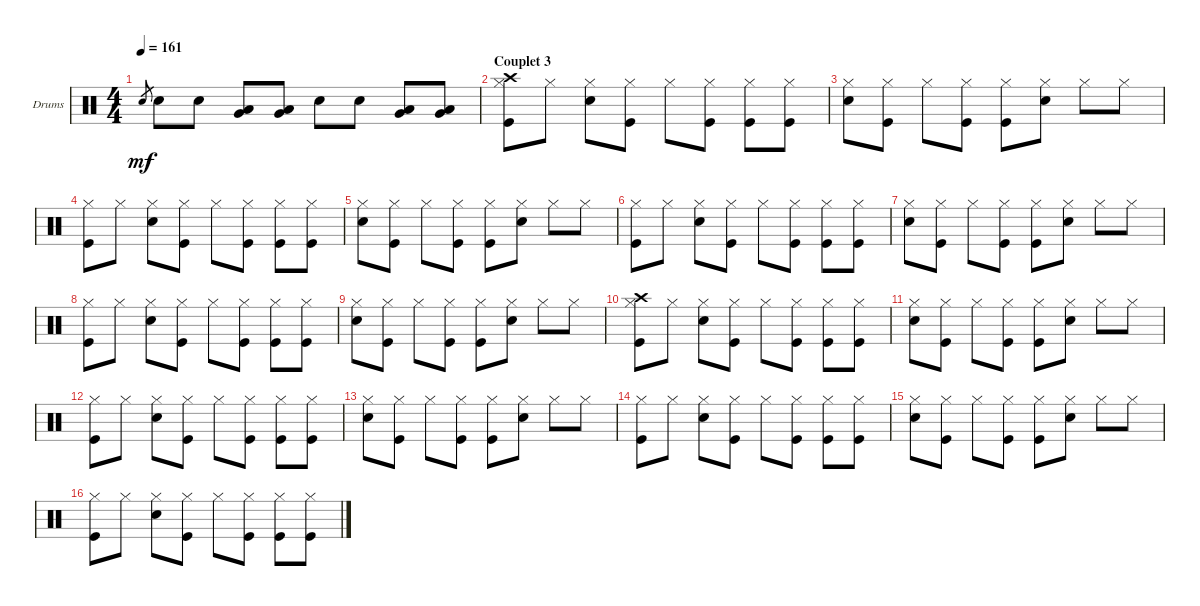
\defaultSystemsLayout 4
\bracketExtendMode groupsimilarinstruments
\firstSystemTrackNameOrientation horizontal
\otherSystemsTrackNameOrientation horizontal
\chordDiagramsInScore
\track ("Drumkit" "Drums") {instrument percussion}
\staff {score}
\articulation defaults
\ts (4 4)
\tempo 161
\clef neutral
\ks c "Snare (hit) 2".8{gr dy mf} "Snare (hit) 2".8 "Snare (hit) 2".8
("Low Tom (hit)" "Very Low Tom (hit)").8 ("Low Tom (hit)" "Very Low Tom (hit)").8 "Snare (hit) 2".8 "Snare (hit) 2".8 ("Low Tom (hit)" "Very Low Tom (hit)").8 ("Low Tom (hit)" "Very Low Tom (hit)").8 |
\section ("" "Couplet 3")
("Hi-Hat (closed)" "Kick (hit)" "Crash high (hit)").8 "Hi-Hat (closed)".8 ("Hi-Hat (closed)" "Snare (hit) 2").8 ("Hi-Hat (closed)" "Kick (hit)").8 "Hi-Hat (closed)".8 ("Hi-Hat (closed)" "Kick (hit)").8 ("Hi-Hat (closed)" "Kick (hit)").8 ("Hi-Hat (closed)" "Kick (hit)").8 |
("Hi-Hat (closed)" "Snare (hit) 2").8 ("Hi-Hat (closed)" "Kick (hit)").8 "Hi-Hat (closed)".8 ("Hi-Hat (closed)" "Kick (hit)").8 ("Hi-Hat (closed)" "Kick (hit)").8 ("Hi-Hat (closed)" "Snare (hit) 2").8 "Hi-Hat (closed)".8 "Hi-Hat (closed)".8 |
("Hi-Hat (closed)" "Kick (hit)").8 "Hi-Hat (closed)".8 ("Hi-Hat (closed)" "Snare (hit) 2").8 ("Hi-Hat (closed)" "Kick (hit)").8 "Hi-Hat (closed)".8 ("Hi-Hat (closed)" "Kick (hit)").8 ("Hi-Hat (closed)" "Kick (hit)").8 ("Hi-Hat (closed)" "Kick (hit)").8 |
("Hi-Hat (closed)" "Snare (hit) 2").8 ("Hi-Hat (closed)" "Kick (hit)").8 "Hi-Hat (closed)".8 ("Hi-Hat (closed)" "Kick (hit)").8 ("Hi-Hat (closed)" "Kick (hit)").8 ("Hi-Hat (closed)" "Snare (hit) 2").8 "Hi-Hat (closed)".8 "Hi-Hat (closed)".8 |
("Hi-Hat (closed)" "Kick (hit)").8 "Hi-Hat (closed)".8 ("Hi-Hat (closed)" "Snare (hit) 2").8 ("Hi-Hat (closed)" "Kick (hit)").8 "Hi-Hat (closed)".8 ("Hi-Hat (closed)" "Kick (hit)").8 ("Hi-Hat (closed)" "Kick (hit)").8 ("Hi-Hat (closed)" "Kick (hit)").8 |
("Hi-Hat (closed)" "Snare (hit) 2").8 ("Hi-Hat (closed)" "Kick (hit)").8 "Hi-Hat (closed)".8 ("Hi-Hat (closed)" "Kick (hit)").8 ("Hi-Hat (closed)" "Kick (hit)").8 ("Hi-Hat (closed)" "Snare (hit) 2").8 "Hi-Hat (closed)".8 "Hi-Hat (closed)".8 |
("Hi-Hat (closed)" "Kick (hit)").8 "Hi-Hat (closed)".8 ("Hi-Hat (closed)" "Snare (hit) 2").8 ("Hi-Hat (closed)" "Kick (hit)").8 "Hi-Hat (closed)".8 ("Hi-Hat (closed)" "Kick (hit)").8 ("Hi-Hat (closed)" "Kick (hit)").8 ("Hi-Hat (closed)" "Kick (hit)").8 |
("Hi-Hat (closed)" "Snare (hit) 2").8 ("Hi-Hat (closed)" "Kick (hit)").8 "Hi-Hat (closed)".8 ("Hi-Hat (closed)" "Kick (hit)").8 ("Hi-Hat (closed)" "Kick (hit)").8 ("Hi-Hat (closed)" "Snare (hit) 2").8 "Hi-Hat (closed)".8 "Hi-Hat (closed)".8 |
("Hi-Hat (closed)" "Kick (hit)" "Crash high (hit)").8 "Hi-Hat (closed)".8 ("Hi-Hat (closed)" "Snare (hit) 2").8 ("Hi-Hat (closed)" "Kick (hit)").8 "Hi-Hat (closed)".8 ("Hi-Hat (closed)" "Kick (hit)").8 ("Hi-Hat (closed)" "Kick (hit)").8 ("Hi-Hat (closed)" "Kick (hit)").8 |
("Hi-Hat (closed)" "Snare (hit) 2").8 ("Hi-Hat (closed)" "Kick (hit)").8 "Hi-Hat (closed)".8 ("Hi-Hat (closed)" "Kick (hit)").8 ("Hi-Hat (closed)" "Kick (hit)").8 ("Hi-Hat (closed)" "Snare (hit) 2").8 "Hi-Hat (closed)".8 "Hi-Hat (closed)".8 |
("Hi-Hat (closed)" "Kick (hit)").8 "Hi-Hat (closed)".8 ("Hi-Hat (closed)" "Snare (hit) 2").8 ("Hi-Hat (closed)" "Kick (hit)").8 "Hi-Hat (closed)".8 ("Hi-Hat (closed)" "Kick (hit)").8 ("Hi-Hat (closed)" "Kick (hit)").8 ("Hi-Hat (closed)" "Kick (hit)").8 |
("Hi-Hat (closed)" "Snare (hit) 2").8 ("Hi-Hat (closed)" "Kick (hit)").8 "Hi-Hat (closed)".8 ("Hi-Hat (closed)" "Kick (hit)").8 ("Hi-Hat (closed)" "Kick (hit)").8 ("Hi-Hat (closed)" "Snare (hit) 2").8 "Hi-Hat (closed)".8 "Hi-Hat (closed)".8 |
("Hi-Hat (closed)" "Kick (hit)").8 "Hi-Hat (closed)".8 ("Hi-Hat (closed)" "Snare (hit) 2").8 ("Hi-Hat (closed)" "Kick (hit)").8 "Hi-Hat (closed)".8 ("Hi-Hat (closed)" "Kick (hit)").8 ("Hi-Hat (closed)" "Kick (hit)").8 ("Hi-Hat (closed)" "Kick (hit)").8 |
("Hi-Hat (closed)" "Snare (hit) 2").8 ("Hi-Hat (closed)" "Kick (hit)").8 "Hi-Hat (closed)".8 ("Hi-Hat (closed)" "Kick (hit)").8 ("Hi-Hat (closed)" "Kick (hit)").8 ("Hi-Hat (closed)" "Snare (hit) 2").8 "Hi-Hat (closed)".8 "Hi-Hat (closed)".8 |
("Hi-Hat (closed)" "Kick (hit)").8 "Hi-Hat (closed)".8 ("Hi-Hat (closed)" "Snare (hit) 2").8 ("Hi-Hat (closed)" "Kick (hit)").8 "Hi-Hat (closed)".8 ("Hi-Hat (closed)" "Kick (hit)").8 ("Hi-Hat (closed)" "Kick (hit)").8 ("Hi-Hat (closed)" "Kick (hit)").8
